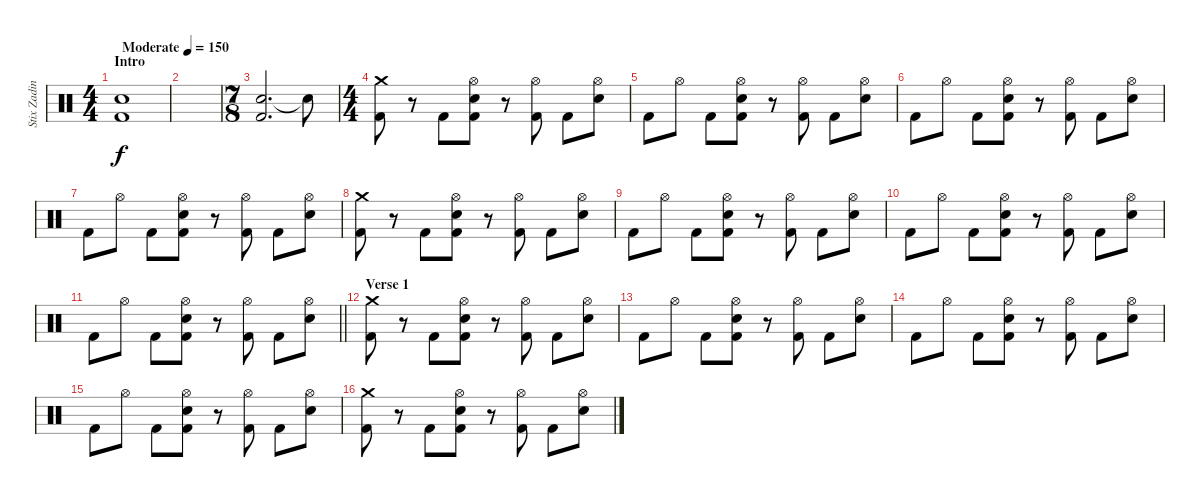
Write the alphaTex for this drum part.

\track ("Stix Zadina" "Stix Zadin") {instrument percussion}
\staff {score}
\articulation defaults
\ts (4 4)
\section ("" "Intro")
\tempo (150 "Moderate")
\clef neutral
\ks c
("Snare (hit) 2" "Kick (hit) 2").1{dy f} |
|
\ts (7 8)
("Snare (hit) 2" "Kick (hit) 2").2{d} "Snare (hit)"{t}.8 |
\ts (4 4)
("Crash medium (hit)" "Kick (hit) 2").8 r.8 "Kick (hit) 2".8 ("Hi-Hat (open)" "Snare (hit) 2" "Kick (hit) 2").8 r.8 ("Hi-Hat (open)" "Kick (hit) 2").8 "Kick (hit) 2".8 ("Hi-Hat (open)" "Snare (hit) 2").8 |
"Kick (hit) 2".8 "Hi-Hat (open)".8 "Kick (hit) 2".8 ("Hi-Hat (open)" "Snare (hit) 2" "Kick (hit) 2").8 r.8 ("Hi-Hat (open)" "Kick (hit) 2").8 "Kick (hit) 2".8 ("Hi-Hat (open)" "Snare (hit) 2").8 |
"Kick (hit) 2".8 "Hi-Hat (open)".8 "Kick (hit) 2".8 ("Hi-Hat (open)" "Snare (hit) 2" "Kick (hit) 2").8 r.8 ("Hi-Hat (open)" "Kick (hit) 2").8 "Kick (hit) 2".8 ("Hi-Hat (open)" "Snare (hit) 2").8 |
"Kick (hit) 2".8 "Hi-Hat (open)".8 "Kick (hit) 2".8 ("Hi-Hat (open)" "Snare (hit) 2" "Kick (hit) 2").8 r.8 ("Hi-Hat (open)" "Kick (hit) 2").8 "Kick (hit) 2".8 ("Hi-Hat (open)" "Snare (hit) 2").8 |
("Crash medium (hit)" "Kick (hit) 2").8 r.8 "Kick (hit) 2".8 ("Hi-Hat (open)" "Snare (hit) 2" "Kick (hit) 2").8 r.8 ("Hi-Hat (open)" "Kick (hit) 2").8 "Kick (hit) 2".8 ("Hi-Hat (open)" "Snare (hit) 2").8 |
"Kick (hit) 2".8 "Hi-Hat (open)".8 "Kick (hit) 2".8 ("Hi-Hat (open)" "Snare (hit) 2" "Kick (hit) 2").8 r.8 ("Hi-Hat (open)" "Kick (hit) 2").8 "Kick (hit) 2".8 ("Hi-Hat (open)" "Snare (hit) 2").8 |
"Kick (hit) 2".8 "Hi-Hat (open)".8 "Kick (hit) 2".8 ("Hi-Hat (open)" "Snare (hit) 2" "Kick (hit) 2").8 r.8 ("Hi-Hat (open)" "Kick (hit) 2").8 "Kick (hit) 2".8 ("Hi-Hat (open)" "Snare (hit) 2").8 |
\barLineRight lightlight "Kick (hit) 2".8 "Hi-Hat (open)".8 "Kick (hit) 2".8
("Hi-Hat (open)" "Snare (hit) 2" "Kick (hit) 2").8 r.8 ("Hi-Hat (open)" "Kick (hit) 2").8 "Kick (hit) 2".8 ("Hi-Hat (open)" "Snare (hit) 2").8 |
\section ("" "Verse 1")
("Crash medium (hit)" "Kick (hit) 2").8 r.8 "Kick (hit) 2".8 ("Hi-Hat (open)" "Snare (hit) 2" "Kick (hit) 2").8 r.8 ("Hi-Hat (open)" "Kick (hit) 2").8 "Kick (hit) 2".8 ("Hi-Hat (open)" "Snare (hit) 2").8 |
"Kick (hit) 2".8 "Hi-Hat (open)".8 "Kick (hit) 2".8 ("Hi-Hat (open)" "Snare (hit) 2" "Kick (hit) 2").8 r.8 ("Hi-Hat (open)" "Kick (hit) 2").8 "Kick (hit) 2".8 ("Hi-Hat (open)" "Snare (hit) 2").8 |
"Kick (hit) 2".8 "Hi-Hat (open)".8 "Kick (hit) 2".8 ("Hi-Hat (open)" "Snare (hit) 2" "Kick (hit) 2").8 r.8 ("Hi-Hat (open)" "Kick (hit) 2").8 "Kick (hit) 2".8 ("Hi-Hat (open)" "Snare (hit) 2").8 |
"Kick (hit) 2".8 "Hi-Hat (open)".8 "Kick (hit) 2".8 ("Hi-Hat (open)" "Snare (hit) 2" "Kick (hit) 2").8 r.8 ("Hi-Hat (open)" "Kick (hit) 2").8 "Kick (hit) 2".8 ("Hi-Hat (open)" "Snare (hit) 2").8 |
("Crash medium (hit)" "Kick (hit) 2").8 r.8 "Kick (hit) 2".8 ("Hi-Hat (open)" "Snare (hit) 2" "Kick (hit) 2").8 r.8 ("Hi-Hat (open)" "Kick (hit) 2").8 "Kick (hit) 2".8 ("Hi-Hat (open)" "Snare (hit) 2").8
